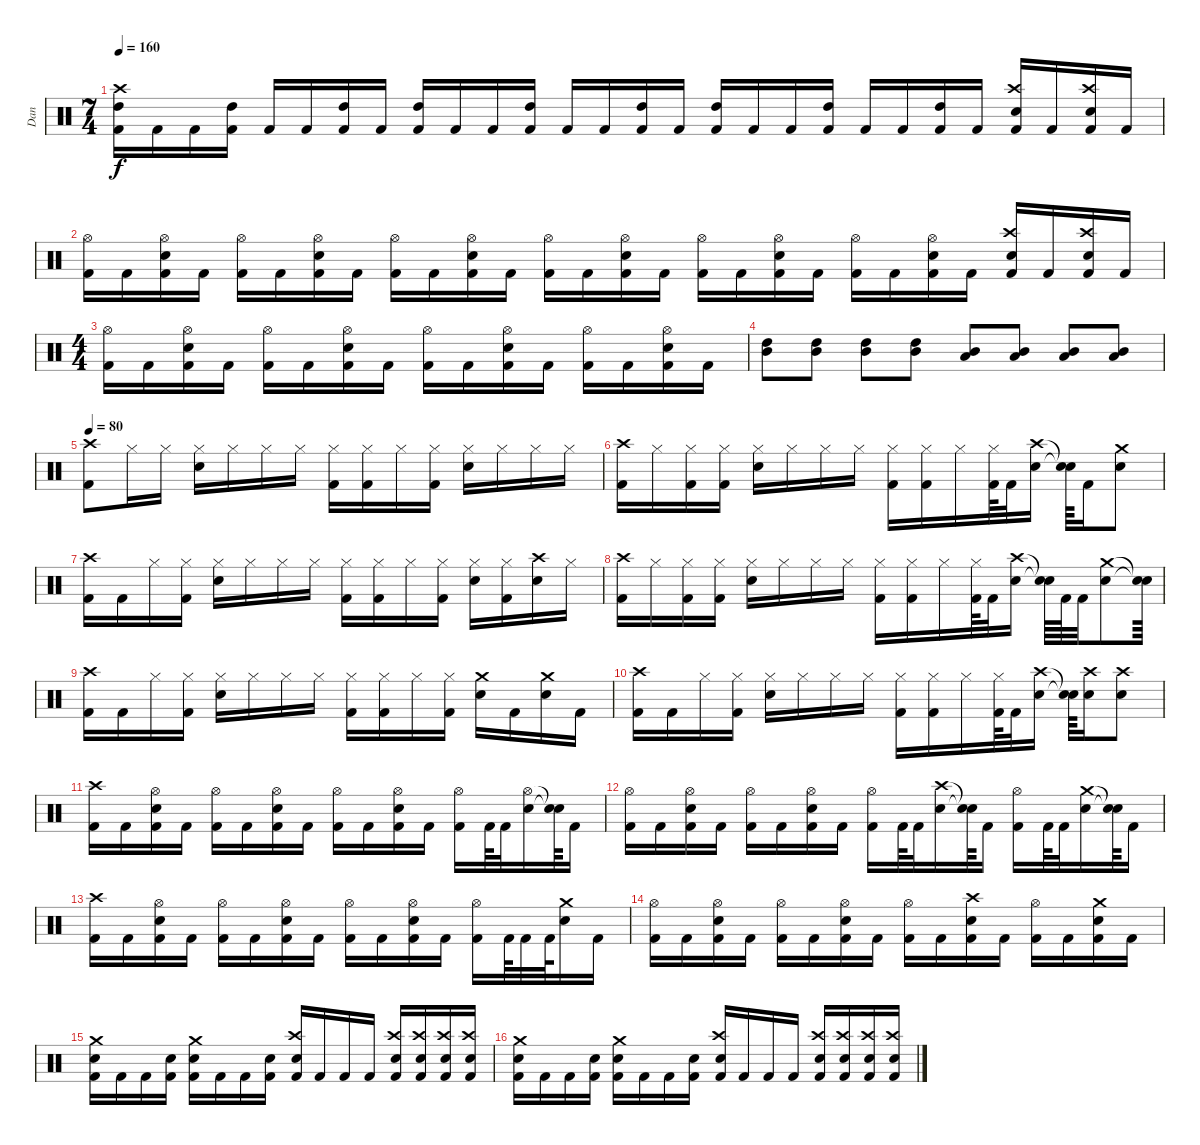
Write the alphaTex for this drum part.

\track ("Dan " "Dan ") {instrument percussion}
\staff {score}
\articulation defaults
\ts (7 4)
\tempo 160
\clef neutral
\ks c
("Kick (hit) 2" "High Tom (hit)" "Crash high (hit)").16{dy f} "Kick (hit) 2".16 "Kick (hit) 2".16 ("Kick (hit) 2" "High Tom (hit)").16 "Kick (hit) 2".16 "Kick (hit) 2".16 ("Kick (hit) 2" "High Tom (hit)").16 "Kick (hit) 2".16 ("Kick (hit) 2" "High Tom (hit)").16 "Kick (hit) 2".16 "Kick (hit) 2".16 ("Kick (hit) 2" "High Tom (hit)").16 "Kick (hit) 2".16 "Kick (hit) 2".16 ("Kick (hit) 2" "High Tom (hit)").16 "Kick (hit) 2".16 ("Kick (hit) 2" "High Tom (hit)").16 "Kick (hit) 2".16 "Kick (hit) 2".16 ("Kick (hit) 2" "High Tom (hit)").16 "Kick (hit) 2".16 "Kick (hit) 2".16 ("Kick (hit) 2" "High Tom (hit)").16 "Kick (hit) 2".16 ("Metronome (bell)" "Kick (hit) 2" "Crash high (hit)").16 "Kick (hit) 2".16 ("Metronome (bell)" "Kick (hit) 2" "Crash high (hit)").16 "Kick (hit) 2".16 |
("Kick (hit) 2" "Hi-Hat (open)").16 "Kick (hit) 2".16 ("Metronome (bell)" "Kick (hit) 2" "Hi-Hat (open)").16 "Kick (hit) 2".16 ("Kick (hit) 2" "Hi-Hat (open)").16 "Kick (hit) 2".16 ("Metronome (bell)" "Kick (hit) 2" "Hi-Hat (open)").16 "Kick (hit) 2".16 ("Kick (hit) 2" "Hi-Hat (open)").16 "Kick (hit) 2".16 ("Metronome (bell)" "Kick (hit) 2" "Hi-Hat (open)").16 "Kick (hit) 2".16 ("Kick (hit) 2" "Hi-Hat (open)").16 "Kick (hit) 2".16 ("Metronome (bell)" "Kick (hit) 2" "Hi-Hat (open)").16 "Kick (hit) 2".16 ("Kick (hit) 2" "Hi-Hat (open)").16 "Kick (hit) 2".16 ("Metronome (bell)" "Kick (hit) 2" "Hi-Hat (open)").16 "Kick (hit) 2".16 ("Kick (hit) 2" "Hi-Hat (open)").16 "Kick (hit) 2".16 ("Metronome (bell)" "Kick (hit) 2" "Hi-Hat (open)").16 "Kick (hit) 2".16 ("Metronome (bell)" "Kick (hit) 2" "Crash high (hit)").16 "Kick (hit) 2".16 ("Metronome (bell)" "Kick (hit) 2" "Crash high (hit)").16 "Kick (hit) 2".16 |
\ts (4 4)
("Kick (hit) 2" "Hi-Hat (open)").16 "Kick (hit) 2".16 ("Metronome (bell)" "Kick (hit) 2" "Hi-Hat (open)").16 "Kick (hit) 2".16 ("Kick (hit) 2" "Hi-Hat (open)").16 "Kick (hit) 2".16 ("Metronome (bell)" "Kick (hit) 2" "Hi-Hat (open)").16 "Kick (hit) 2".16 ("Kick (hit) 2" "Hi-Hat (open)").16 "Kick (hit) 2".16 ("Metronome (bell)" "Kick (hit) 2" "Hi-Hat (open)").16 "Kick (hit) 2".16 ("Kick (hit) 2" "Hi-Hat (open)").16 "Kick (hit) 2".16 ("Metronome (bell)" "Kick (hit) 2" "Hi-Hat (open)").16 "Kick (hit) 2".16 |
("Mid Tom (hit)" "High Tom (hit)").8 ("Mid Tom (hit)" "High Tom (hit)").8 ("Mid Tom (hit)" "High Tom (hit)").8 ("Mid Tom (hit)" "High Tom (hit)").8 ("Low Tom (hit)" "Mid Tom (hit)").8 ("Low Tom (hit)" "Mid Tom (hit)").8 ("Low Tom (hit)" "Mid Tom (hit)").8 ("Low Tom (hit)" "Mid Tom (hit)").8 |
\tempo 80
("Kick (hit) 2" "Crash high (hit)").8 "Hi-Hat (closed)".16 "Hi-Hat (closed)".16 ("Metronome (bell)" "Hi-Hat (closed)").16 "Hi-Hat (closed)".16 "Hi-Hat (closed)".16 "Hi-Hat (closed)".16 ("Kick (hit) 2" "Hi-Hat (closed)").16 ("Kick (hit) 2" "Hi-Hat (closed)").16 "Hi-Hat (closed)".16 ("Kick (hit) 2" "Hi-Hat (closed)").16 ("Metronome (bell)" "Hi-Hat (closed)").16 "Hi-Hat (closed)".16 "Hi-Hat (closed)".16 "Hi-Hat (closed)".16 |
("Kick (hit) 2" "Crash high (hit)").16 "Hi-Hat (closed)".16 ("Kick (hit) 2" "Hi-Hat (closed)").16 ("Kick (hit) 2" "Hi-Hat (closed)").16 ("Metronome (bell)" "Hi-Hat (closed)").16 "Hi-Hat (closed)".16 "Hi-Hat (closed)".16 "Hi-Hat (closed)".16 ("Kick (hit) 2" "Hi-Hat (closed)").16 ("Kick (hit) 2" "Hi-Hat (closed)").16 "Hi-Hat (closed)".16 ("Kick (hit) 2" "Hi-Hat (closed)").64 "Kick (hit) 2".32 ("Metronome (bell)" "Crash high (hit)").16 ("Snare (hit)"{t} "Snare (hit)"{t}).64 "Kick (hit) 2".16 ("Metronome (bell)" "Crash medium (hit)").8 |
("Kick (hit) 2" "Crash high (hit)").16 "Kick (hit) 2".16 "Hi-Hat (closed)".16 ("Kick (hit) 2" "Hi-Hat (closed)").16 ("Metronome (bell)" "Hi-Hat (closed)").16 "Hi-Hat (closed)".16 "Hi-Hat (closed)".16 "Hi-Hat (closed)".16 ("Kick (hit) 2" "Hi-Hat (closed)").16 ("Kick (hit) 2" "Hi-Hat (closed)").16 "Hi-Hat (closed)".16 ("Kick (hit) 2" "Hi-Hat (closed)").16 ("Metronome (bell)" "Hi-Hat (closed)").16 ("Kick (hit) 2" "Hi-Hat (closed)").16 ("Metronome (bell)" "Crash high (hit)").16 "Hi-Hat (closed)".16 |
("Kick (hit) 2" "Crash high (hit)").16 "Hi-Hat (closed)".16 ("Kick (hit) 2" "Hi-Hat (closed)").16 ("Kick (hit) 2" "Hi-Hat (closed)").16 ("Metronome (bell)" "Hi-Hat (closed)").16 "Hi-Hat (closed)".16 "Hi-Hat (closed)".16 "Hi-Hat (closed)".16 ("Kick (hit) 2" "Hi-Hat (closed)").16 ("Kick (hit) 2" "Hi-Hat (closed)").16 "Hi-Hat (closed)".16 ("Kick (hit) 2" "Hi-Hat (closed)").64 "Kick (hit) 2".32 ("Metronome (bell)" "Crash high (hit)").16 ("Snare (hit)"{t} "Snare (hit)"{t}).64 "Kick (hit) 2".64 "Kick (hit) 2".32 ("Metronome (bell)" "Crash medium (hit)").8 ("Snare (hit)"{t} "Snare (hit)"{t}).64 |
("Kick (hit) 2" "Crash high (hit)").16 "Kick (hit) 2".16 "Hi-Hat (closed)".16 ("Kick (hit) 2" "Hi-Hat (closed)").16 ("Metronome (bell)" "Hi-Hat (closed)").16 "Hi-Hat (closed)".16 "Hi-Hat (closed)".16 "Hi-Hat (closed)".16 ("Kick (hit) 2" "Hi-Hat (closed)").16 ("Kick (hit) 2" "Hi-Hat (closed)").16 "Hi-Hat (closed)".16 ("Kick (hit) 2" "Hi-Hat (closed)").16 ("Metronome (bell)" "Crash medium (hit)").16 "Kick (hit) 2".16 ("Metronome (bell)" "Crash medium (hit)").16 "Kick (hit) 2".16 |
("Kick (hit) 2" "Crash high (hit)").16 "Kick (hit) 2".16 "Hi-Hat (closed)".16 ("Kick (hit) 2" "Hi-Hat (closed)").16 ("Metronome (bell)" "Hi-Hat (closed)").16 "Hi-Hat (closed)".16 "Hi-Hat (closed)".16 "Hi-Hat (closed)".16 ("Kick (hit) 2" "Hi-Hat (closed)").16 ("Kick (hit) 2" "Hi-Hat (closed)").16 "Hi-Hat (closed)".16 ("Kick (hit) 2" "Hi-Hat (closed)").64 "Kick (hit) 2".32 ("Metronome (bell)" "Crash high (hit)").16 ("Snare (hit)"{t} "Snare (hit)"{t}).64 ("Metronome (bell)" "Crash high (hit)").16 ("Metronome (bell)" "Crash high (hit)").8 |
("Kick (hit) 2" "Crash high (hit)").16 "Kick (hit) 2".16 ("Metronome (bell)" "Kick (hit) 2" "Hi-Hat (open)").16 "Kick (hit) 2".16 ("Kick (hit) 2" "Hi-Hat (open)").16 "Kick (hit) 2".16 ("Metronome (bell)" "Kick (hit) 2" "Hi-Hat (open)").16 "Kick (hit) 2".16 ("Kick (hit) 2" "Hi-Hat (open)").16 "Kick (hit) 2".16 ("Metronome (bell)" "Kick (hit) 2" "Hi-Hat (open)").16 "Kick (hit) 2".16 ("Kick (hit) 2" "Hi-Hat (open)").16 "Kick (hit) 2".64 "Kick (hit) 2".32 ("Metronome (bell)" "Hi-Hat (open)").16 ("Snare (hit)"{t} "Snare (hit)"{t}).64 "Kick (hit) 2".16 |
("Kick (hit) 2" "Hi-Hat (open)").16 "Kick (hit) 2".16 ("Metronome (bell)" "Kick (hit) 2" "Hi-Hat (open)").16 "Kick (hit) 2".16 ("Kick (hit) 2" "Hi-Hat (open)").16 "Kick (hit) 2".16 ("Metronome (bell)" "Kick (hit) 2" "Hi-Hat (open)").16 "Kick (hit) 2".16 ("Kick (hit) 2" "Hi-Hat (open)").16 "Kick (hit) 2".64 "Kick (hit) 2".32 ("Metronome (bell)" "Crash high (hit)").16 ("Snare (hit)"{t} "Snare (hit)"{t}).64 "Kick (hit) 2".16 ("Kick (hit) 2" "Hi-Hat (open)").16 "Kick (hit) 2".64 "Kick (hit) 2".32 ("Metronome (bell)" "Crash medium (hit)").16 ("Snare (hit)"{t} "Snare (hit)"{t}).64 "Kick (hit) 2".16 |
("Kick (hit) 2" "Crash high (hit)").16 "Kick (hit) 2".16 ("Metronome (bell)" "Kick (hit) 2" "Hi-Hat (open)").16 "Kick (hit) 2".16 ("Kick (hit) 2" "Hi-Hat (open)").16 "Kick (hit) 2".16 ("Metronome (bell)" "Kick (hit) 2" "Hi-Hat (open)").16 "Kick (hit) 2".16 ("Kick (hit) 2" "Hi-Hat (open)").16 "Kick (hit) 2".16 ("Metronome (bell)" "Kick (hit) 2" "Hi-Hat (open)").16 "Kick (hit) 2".16 ("Kick (hit) 2" "Hi-Hat (open)").16 "Kick (hit) 2".64 "Kick (hit) 2".32 "Kick (hit) 2".64 ("Metronome (bell)" "Crash medium (hit)").16 "Kick (hit) 2".16 |
("Kick (hit) 2" "Hi-Hat (open)").16 "Kick (hit) 2".16 ("Metronome (bell)" "Kick (hit) 2" "Hi-Hat (open)").16 "Kick (hit) 2".16 ("Kick (hit) 2" "Hi-Hat (open)").16 "Kick (hit) 2".16 ("Metronome (bell)" "Kick (hit) 2" "Hi-Hat (open)").16 "Kick (hit) 2".16 ("Kick (hit) 2" "Hi-Hat (open)").16 "Kick (hit) 2".16 ("Metronome (bell)" "Kick (hit) 2" "Crash high (hit)").16 "Kick (hit) 2".16 ("Kick (hit) 2" "Hi-Hat (open)").16 "Kick (hit) 2".16 ("Metronome (bell)" "Kick (hit) 2" "Crash medium (hit)").16 "Kick (hit) 2".16 |
("Metronome (bell)" "Kick (hit) 2" "Crash medium (hit)").16 "Kick (hit) 2".16 "Kick (hit) 2".16 ("Metronome (bell)" "Kick (hit) 2").16 ("Metronome (bell)" "Kick (hit) 2" "Crash medium (hit)").16 "Kick (hit) 2".16 "Kick (hit) 2".16 ("Metronome (bell)" "Kick (hit) 2").16 ("Metronome (bell)" "Kick (hit) 2" "Crash high (hit)").16 "Kick (hit) 2".16 "Kick (hit) 2".16 "Kick (hit) 2".16 ("Metronome (bell)" "Kick (hit) 2" "Crash high (hit)").16 ("Metronome (bell)" "Kick (hit) 2" "Crash high (hit)").16 ("Metronome (bell)" "Kick (hit) 2" "Crash high (hit)").16 ("Metronome (bell)" "Kick (hit) 2" "Crash high (hit)").16 |
("Metronome (bell)" "Kick (hit) 2" "Crash medium (hit)").16 "Kick (hit) 2".16 "Kick (hit) 2".16 ("Metronome (bell)" "Kick (hit) 2").16 ("Metronome (bell)" "Kick (hit) 2" "Crash medium (hit)").16 "Kick (hit) 2".16 "Kick (hit) 2".16 ("Metronome (bell)" "Kick (hit) 2").16 ("Metronome (bell)" "Kick (hit) 2" "Crash high (hit)").16 "Kick (hit) 2".16 "Kick (hit) 2".16 "Kick (hit) 2".16 ("Metronome (bell)" "Kick (hit) 2" "Crash high (hit)").16 ("Metronome (bell)" "Kick (hit) 2" "Crash high (hit)").16 ("Metronome (bell)" "Kick (hit) 2" "Crash high (hit)").16 ("Metronome (bell)" "Kick (hit) 2" "Crash high (hit)").16
